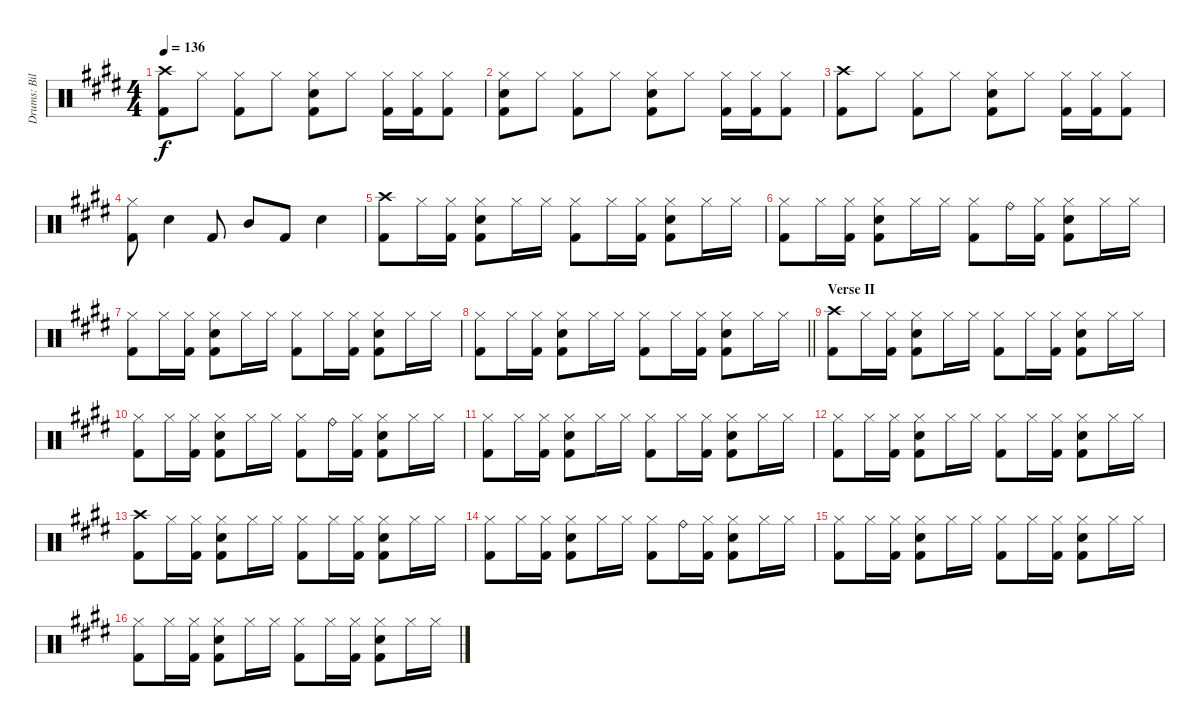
\track ("Drums: Bill" "Drums: Bil") {instrument percussion}
\staff {score}
\articulation defaults
\ts (4 4)
\tempo 136
\clef neutral
\ks e
("Crash high (hit)" "Kick (hit) 2").8{dy f} "Hi-Hat (closed)".8 ("Hi-Hat (closed)" "Kick (hit) 2").8 "Hi-Hat (closed)".8 ("Hi-Hat (closed)" "Snare (hit) 2" "Kick (hit) 2").8 "Hi-Hat (closed)".8 ("Hi-Hat (closed)" "Kick (hit) 2").16 ("Hi-Hat (closed)" "Kick (hit) 2").16 ("Hi-Hat (closed)" "Kick (hit) 2").8 |
("Hi-Hat (closed)" "Snare (hit) 2" "Kick (hit) 2").8 "Hi-Hat (closed)".8 ("Hi-Hat (closed)" "Kick (hit) 2").8 "Hi-Hat (closed)".8 ("Hi-Hat (closed)" "Snare (hit) 2" "Kick (hit) 2").8 "Hi-Hat (closed)".8 ("Hi-Hat (closed)" "Kick (hit) 2").16 ("Hi-Hat (closed)" "Kick (hit) 2").16 ("Hi-Hat (closed)" "Kick (hit) 2").8 |
("Crash high (hit)" "Kick (hit) 2").8 "Hi-Hat (closed)".8 ("Hi-Hat (closed)" "Kick (hit) 2").8 "Hi-Hat (closed)".8 ("Hi-Hat (closed)" "Snare (hit) 2" "Kick (hit) 2").8 "Hi-Hat (closed)".8 ("Hi-Hat (closed)" "Kick (hit) 2").16 ("Hi-Hat (closed)" "Kick (hit) 2").16 ("Hi-Hat (closed)" "Kick (hit) 2").8 |
("Hi-Hat (closed)" "Kick (hit) 2").8 "Electric Snare (hit)".4 "Kick (hit) 2".8 "Mid Tom (hit)".8 "Kick (hit) 2".8 "Electric Snare (hit)".4 |
("Crash high (hit)" "Kick (hit) 2").8 "Hi-Hat (closed)".16 ("Hi-Hat (closed)" "Kick (hit) 2").16 ("Hi-Hat (closed)" "Snare (hit) 2" "Kick (hit) 2").8 "Hi-Hat (closed)".16 "Hi-Hat (closed)".16 ("Hi-Hat (closed)" "Kick (hit) 2").8 "Hi-Hat (closed)".16 ("Hi-Hat (closed)" "Kick (hit) 2").16 ("Hi-Hat (closed)" "Snare (hit) 2" "Kick (hit) 2").8 "Hi-Hat (closed)".16 "Hi-Hat (closed)".16 |
("Hi-Hat (closed)" "Kick (hit) 2").8 "Hi-Hat (closed)".16 ("Hi-Hat (closed)" "Kick (hit) 2").16 ("Hi-Hat (closed)" "Snare (hit) 2" "Kick (hit) 2").8 "Hi-Hat (closed)".16 "Hi-Hat (closed)".16 ("Hi-Hat (closed)" "Kick (hit) 2").8 "Ride (bell)".16 ("Hi-Hat (closed)" "Kick (hit) 2").16 ("Hi-Hat (closed)" "Snare (hit) 2" "Kick (hit) 2").8 "Hi-Hat (closed)".16 "Hi-Hat (closed)".16 |
("Hi-Hat (closed)" "Kick (hit) 2").8 "Hi-Hat (closed)".16 ("Hi-Hat (closed)" "Kick (hit) 2").16 ("Hi-Hat (closed)" "Snare (hit) 2" "Kick (hit) 2").8 "Hi-Hat (closed)".16 "Hi-Hat (closed)".16 ("Hi-Hat (closed)" "Kick (hit) 2").8 "Hi-Hat (closed)".16 ("Hi-Hat (closed)" "Kick (hit) 2").16 ("Hi-Hat (closed)" "Snare (hit) 2" "Kick (hit) 2").8 "Hi-Hat (closed)".16 "Hi-Hat (closed)".16 |
\barLineRight lightlight
("Hi-Hat (closed)" "Kick (hit) 2").8 "Hi-Hat (closed)".16 ("Hi-Hat (closed)" "Kick (hit) 2").16 ("Hi-Hat (closed)" "Snare (hit) 2" "Kick (hit) 2").8 "Hi-Hat (closed)".16 "Hi-Hat (closed)".16 ("Hi-Hat (closed)" "Kick (hit) 2").8 "Hi-Hat (closed)".16 ("Hi-Hat (closed)" "Kick (hit) 2").16 ("Hi-Hat (closed)" "Snare (hit) 2" "Kick (hit) 2").8 "Hi-Hat (closed)".16 "Hi-Hat (closed)".16 |
\section ("" "Verse II")
("Crash high (hit)" "Kick (hit) 2").8 "Hi-Hat (closed)".16 ("Hi-Hat (closed)" "Kick (hit) 2").16 ("Hi-Hat (closed)" "Snare (hit) 2" "Kick (hit) 2").8 "Hi-Hat (closed)".16 "Hi-Hat (closed)".16 ("Hi-Hat (closed)" "Kick (hit) 2").8 "Hi-Hat (closed)".16 ("Hi-Hat (closed)" "Kick (hit) 2").16 ("Hi-Hat (closed)" "Snare (hit) 2" "Kick (hit) 2").8 "Hi-Hat (closed)".16 "Hi-Hat (closed)".16 |
("Hi-Hat (closed)" "Kick (hit) 2").8 "Hi-Hat (closed)".16 ("Hi-Hat (closed)" "Kick (hit) 2").16 ("Hi-Hat (closed)" "Snare (hit) 2" "Kick (hit) 2").8 "Hi-Hat (closed)".16 "Hi-Hat (closed)".16 ("Hi-Hat (closed)" "Kick (hit) 2").8 "Ride (bell)".16 ("Hi-Hat (closed)" "Kick (hit) 2").16 ("Hi-Hat (closed)" "Snare (hit) 2" "Kick (hit) 2").8 "Hi-Hat (closed)".16 "Hi-Hat (closed)".16 |
("Hi-Hat (closed)" "Kick (hit) 2").8 "Hi-Hat (closed)".16 ("Hi-Hat (closed)" "Kick (hit) 2").16 ("Hi-Hat (closed)" "Snare (hit) 2" "Kick (hit) 2").8 "Hi-Hat (closed)".16 "Hi-Hat (closed)".16 ("Hi-Hat (closed)" "Kick (hit) 2").8 "Hi-Hat (closed)".16 ("Hi-Hat (closed)" "Kick (hit) 2").16 ("Hi-Hat (closed)" "Snare (hit) 2" "Kick (hit) 2").8 "Hi-Hat (closed)".16 "Hi-Hat (closed)".16 |
("Hi-Hat (closed)" "Kick (hit) 2").8 "Hi-Hat (closed)".16 ("Hi-Hat (closed)" "Kick (hit) 2").16 ("Hi-Hat (closed)" "Snare (hit) 2" "Kick (hit) 2").8 "Hi-Hat (closed)".16 "Hi-Hat (closed)".16 ("Hi-Hat (closed)" "Kick (hit) 2").8 "Hi-Hat (closed)".16 ("Hi-Hat (closed)" "Kick (hit) 2").16 ("Hi-Hat (closed)" "Snare (hit) 2" "Kick (hit) 2").8 "Hi-Hat (closed)".16 "Hi-Hat (closed)".16 |
("Crash high (hit)" "Kick (hit) 2").8 "Hi-Hat (closed)".16 ("Hi-Hat (closed)" "Kick (hit) 2").16 ("Hi-Hat (closed)" "Snare (hit) 2" "Kick (hit) 2").8 "Hi-Hat (closed)".16 "Hi-Hat (closed)".16 ("Hi-Hat (closed)" "Kick (hit) 2").8 "Hi-Hat (closed)".16 ("Hi-Hat (closed)" "Kick (hit) 2").16 ("Hi-Hat (closed)" "Snare (hit) 2" "Kick (hit) 2").8 "Hi-Hat (closed)".16 "Hi-Hat (closed)".16 |
("Hi-Hat (closed)" "Kick (hit) 2").8 "Hi-Hat (closed)".16 ("Hi-Hat (closed)" "Kick (hit) 2").16 ("Hi-Hat (closed)" "Snare (hit) 2" "Kick (hit) 2").8 "Hi-Hat (closed)".16 "Hi-Hat (closed)".16 ("Hi-Hat (closed)" "Kick (hit) 2").8 "Ride (bell)".16 ("Hi-Hat (closed)" "Kick (hit) 2").16 ("Hi-Hat (closed)" "Snare (hit) 2" "Kick (hit) 2").8 "Hi-Hat (closed)".16 "Hi-Hat (closed)".16 |
("Hi-Hat (closed)" "Kick (hit) 2").8 "Hi-Hat (closed)".16 ("Hi-Hat (closed)" "Kick (hit) 2").16 ("Hi-Hat (closed)" "Snare (hit) 2" "Kick (hit) 2").8 "Hi-Hat (closed)".16 "Hi-Hat (closed)".16 ("Hi-Hat (closed)" "Kick (hit) 2").8 "Hi-Hat (closed)".16 ("Hi-Hat (closed)" "Kick (hit) 2").16 ("Hi-Hat (closed)" "Snare (hit) 2" "Kick (hit) 2").8 "Hi-Hat (closed)".16 "Hi-Hat (closed)".16 |
("Hi-Hat (closed)" "Kick (hit) 2").8 "Hi-Hat (closed)".16 ("Hi-Hat (closed)" "Kick (hit) 2").16 ("Hi-Hat (closed)" "Snare (hit) 2" "Kick (hit) 2").8 "Hi-Hat (closed)".16 "Hi-Hat (closed)".16 ("Hi-Hat (closed)" "Kick (hit) 2").8 "Hi-Hat (closed)".16 ("Hi-Hat (closed)" "Kick (hit) 2").16 ("Hi-Hat (closed)" "Snare (hit) 2" "Kick (hit) 2").8 "Hi-Hat (closed)".16 "Hi-Hat (closed)".16
